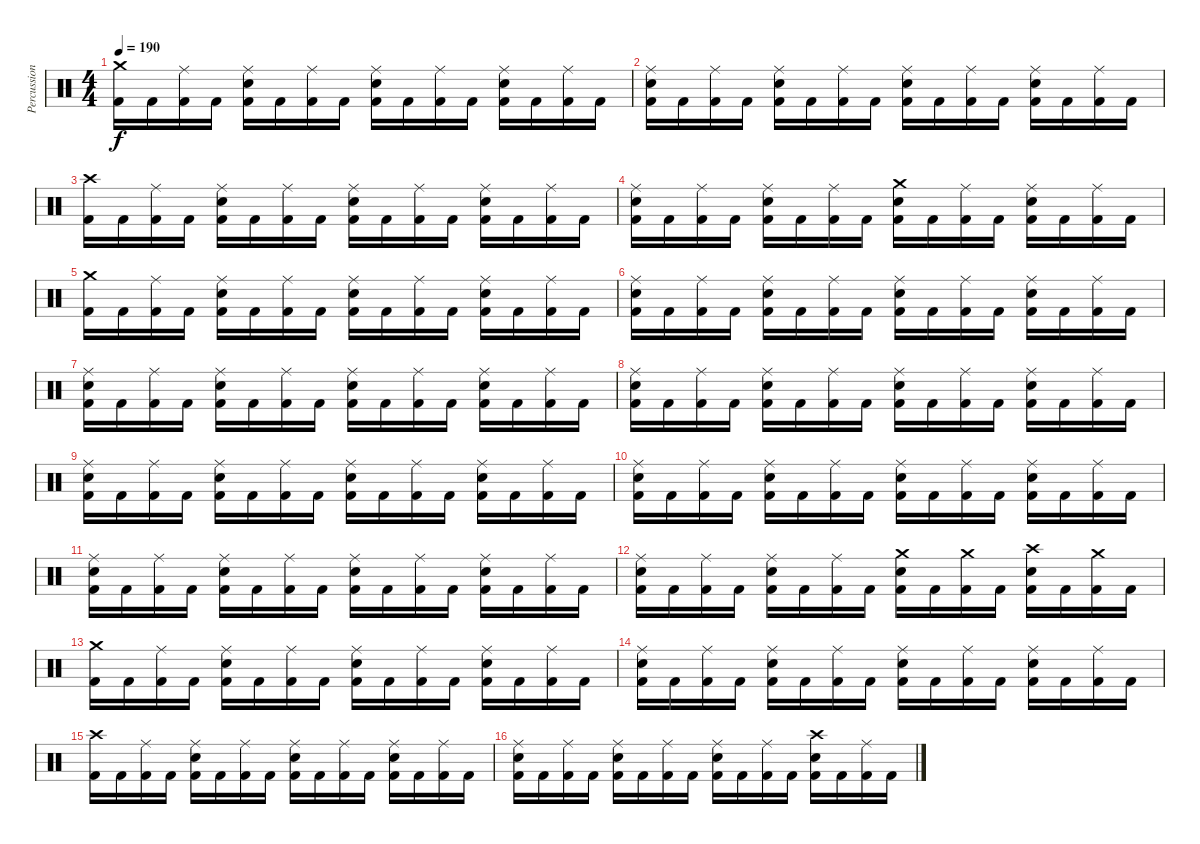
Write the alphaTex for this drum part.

\track ("Percussions" "Percussion") {instrument percussion}
\staff {score}
\articulation defaults
\ts (4 4)
\tempo 190
\clef neutral
\ks c
("Crash medium (hit)" "Kick (hit) 2").16{dy f} "Kick (hit) 2".16 ("Ride (middle)" "Kick (hit) 2").16 "Kick (hit) 2".16 ("Ride (middle)" "Electric Snare (hit)" "Kick (hit) 2").16 "Kick (hit) 2".16 ("Ride (middle)" "Kick (hit) 2").16 "Kick (hit) 2".16 ("Ride (middle)" "Electric Snare (hit)" "Kick (hit) 2").16 "Kick (hit) 2".16 ("Ride (middle)" "Kick (hit) 2").16 "Kick (hit) 2".16 ("Ride (middle)" "Electric Snare (hit)" "Kick (hit) 2").16 "Kick (hit) 2".16 ("Ride (middle)" "Kick (hit) 2").16 "Kick (hit) 2".16 |
("Ride (middle)" "Electric Snare (hit)" "Kick (hit) 2").16 "Kick (hit) 2".16 ("Ride (middle)" "Kick (hit) 2").16 "Kick (hit) 2".16 ("Ride (middle)" "Electric Snare (hit)" "Kick (hit) 2").16 "Kick (hit) 2".16 ("Ride (middle)" "Kick (hit) 2").16 "Kick (hit) 2".16 ("Ride (middle)" "Electric Snare (hit)" "Kick (hit) 2").16 "Kick (hit) 2".16 ("Ride (middle)" "Kick (hit) 2").16 "Kick (hit) 2".16 ("Ride (middle)" "Electric Snare (hit)" "Kick (hit) 2").16 "Kick (hit) 2".16 ("Ride (middle)" "Kick (hit) 2").16 "Kick (hit) 2".16 |
("Crash high (hit)" "Kick (hit) 2").16 "Kick (hit) 2".16 ("Ride (middle)" "Kick (hit) 2").16 "Kick (hit) 2".16 ("Ride (middle)" "Electric Snare (hit)" "Kick (hit) 2").16 "Kick (hit) 2".16 ("Ride (middle)" "Kick (hit) 2").16 "Kick (hit) 2".16 ("Ride (middle)" "Electric Snare (hit)" "Kick (hit) 2").16 "Kick (hit) 2".16 ("Ride (middle)" "Kick (hit) 2").16 "Kick (hit) 2".16 ("Ride (middle)" "Electric Snare (hit)" "Kick (hit) 2").16 "Kick (hit) 2".16 ("Ride (middle)" "Kick (hit) 2").16 "Kick (hit) 2".16 |
("Ride (middle)" "Electric Snare (hit)" "Kick (hit) 2").16 "Kick (hit) 2".16 ("Ride (middle)" "Kick (hit) 2").16 "Kick (hit) 2".16 ("Ride (middle)" "Electric Snare (hit)" "Kick (hit) 2").16 "Kick (hit) 2".16 ("Ride (middle)" "Kick (hit) 2").16 "Kick (hit) 2".16 ("Crash medium (hit)" "Electric Snare (hit)" "Kick (hit) 2").16 "Kick (hit) 2".16 ("Ride (middle)" "Kick (hit) 2").16 "Kick (hit) 2".16 ("Ride (middle)" "Electric Snare (hit)" "Kick (hit) 2").16 "Kick (hit) 2".16 ("Ride (middle)" "Kick (hit) 2").16 "Kick (hit) 2".16 |
("Crash medium (hit)" "Kick (hit) 2").16 "Kick (hit) 2".16 ("Ride (middle)" "Kick (hit) 2").16 "Kick (hit) 2".16 ("Ride (middle)" "Electric Snare (hit)" "Kick (hit) 2").16 "Kick (hit) 2".16 ("Ride (middle)" "Kick (hit) 2").16 "Kick (hit) 2".16 ("Ride (middle)" "Electric Snare (hit)" "Kick (hit) 2").16 "Kick (hit) 2".16 ("Ride (middle)" "Kick (hit) 2").16 "Kick (hit) 2".16 ("Ride (middle)" "Electric Snare (hit)" "Kick (hit) 2").16 "Kick (hit) 2".16 ("Ride (middle)" "Kick (hit) 2").16 "Kick (hit) 2".16 |
("Ride (middle)" "Electric Snare (hit)" "Kick (hit) 2").16 "Kick (hit) 2".16 ("Ride (middle)" "Kick (hit) 2").16 "Kick (hit) 2".16 ("Ride (middle)" "Electric Snare (hit)" "Kick (hit) 2").16 "Kick (hit) 2".16 ("Ride (middle)" "Kick (hit) 2").16 "Kick (hit) 2".16 ("Ride (middle)" "Electric Snare (hit)" "Kick (hit) 2").16 "Kick (hit) 2".16 ("Ride (middle)" "Kick (hit) 2").16 "Kick (hit) 2".16 ("Ride (middle)" "Electric Snare (hit)" "Kick (hit) 2").16 "Kick (hit) 2".16 ("Ride (middle)" "Kick (hit) 2").16 "Kick (hit) 2".16 |
("Ride (middle)" "Electric Snare (hit)" "Kick (hit) 2").16 "Kick (hit) 2".16 ("Ride (middle)" "Kick (hit) 2").16 "Kick (hit) 2".16 ("Ride (middle)" "Electric Snare (hit)" "Kick (hit) 2").16 "Kick (hit) 2".16 ("Ride (middle)" "Kick (hit) 2").16 "Kick (hit) 2".16 ("Ride (middle)" "Electric Snare (hit)" "Kick (hit) 2").16 "Kick (hit) 2".16 ("Ride (middle)" "Kick (hit) 2").16 "Kick (hit) 2".16 ("Ride (middle)" "Electric Snare (hit)" "Kick (hit) 2").16 "Kick (hit) 2".16 ("Ride (middle)" "Kick (hit) 2").16 "Kick (hit) 2".16 |
("Ride (middle)" "Electric Snare (hit)" "Kick (hit) 2").16 "Kick (hit) 2".16 ("Ride (middle)" "Kick (hit) 2").16 "Kick (hit) 2".16 ("Ride (middle)" "Electric Snare (hit)" "Kick (hit) 2").16 "Kick (hit) 2".16 ("Ride (middle)" "Kick (hit) 2").16 "Kick (hit) 2".16 ("Ride (middle)" "Electric Snare (hit)" "Kick (hit) 2").16 "Kick (hit) 2".16 ("Ride (middle)" "Kick (hit) 2").16 "Kick (hit) 2".16 ("Ride (middle)" "Electric Snare (hit)" "Kick (hit) 2").16 "Kick (hit) 2".16 ("Ride (middle)" "Kick (hit) 2").16 "Kick (hit) 2".16 |
("Ride (middle)" "Electric Snare (hit)" "Kick (hit) 2").16 "Kick (hit) 2".16 ("Ride (middle)" "Kick (hit) 2").16 "Kick (hit) 2".16 ("Ride (middle)" "Electric Snare (hit)" "Kick (hit) 2").16 "Kick (hit) 2".16 ("Ride (middle)" "Kick (hit) 2").16 "Kick (hit) 2".16 ("Ride (middle)" "Electric Snare (hit)" "Kick (hit) 2").16 "Kick (hit) 2".16 ("Ride (middle)" "Kick (hit) 2").16 "Kick (hit) 2".16 ("Ride (middle)" "Electric Snare (hit)" "Kick (hit) 2").16 "Kick (hit) 2".16 ("Ride (middle)" "Kick (hit) 2").16 "Kick (hit) 2".16 |
("Ride (middle)" "Electric Snare (hit)" "Kick (hit) 2").16 "Kick (hit) 2".16 ("Ride (middle)" "Kick (hit) 2").16 "Kick (hit) 2".16 ("Ride (middle)" "Electric Snare (hit)" "Kick (hit) 2").16 "Kick (hit) 2".16 ("Ride (middle)" "Kick (hit) 2").16 "Kick (hit) 2".16 ("Ride (middle)" "Electric Snare (hit)" "Kick (hit) 2").16 "Kick (hit) 2".16 ("Ride (middle)" "Kick (hit) 2").16 "Kick (hit) 2".16 ("Ride (middle)" "Electric Snare (hit)" "Kick (hit) 2").16 "Kick (hit) 2".16 ("Ride (middle)" "Kick (hit) 2").16 "Kick (hit) 2".16 |
("Ride (middle)" "Electric Snare (hit)" "Kick (hit) 2").16 "Kick (hit) 2".16 ("Ride (middle)" "Kick (hit) 2").16 "Kick (hit) 2".16 ("Ride (middle)" "Electric Snare (hit)" "Kick (hit) 2").16 "Kick (hit) 2".16 ("Ride (middle)" "Kick (hit) 2").16 "Kick (hit) 2".16 ("Ride (middle)" "Electric Snare (hit)" "Kick (hit) 2").16 "Kick (hit) 2".16 ("Ride (middle)" "Kick (hit) 2").16 "Kick (hit) 2".16 ("Ride (middle)" "Electric Snare (hit)" "Kick (hit) 2").16 "Kick (hit) 2".16 ("Ride (middle)" "Kick (hit) 2").16 "Kick (hit) 2".16 |
("Ride (middle)" "Electric Snare (hit)" "Kick (hit) 2").16 "Kick (hit) 2".16 ("Ride (middle)" "Kick (hit) 2").16 "Kick (hit) 2".16 ("Ride (middle)" "Electric Snare (hit)" "Kick (hit) 2").16 "Kick (hit) 2".16 ("Ride (middle)" "Kick (hit) 2").16 "Kick (hit) 2".16 ("Crash medium (hit)" "Electric Snare (hit)" "Kick (hit) 2").16 "Kick (hit) 2".16 ("Crash medium (hit)" "Kick (hit) 2").16 "Kick (hit) 2".16 ("Crash high (hit)" "Electric Snare (hit)" "Kick (hit) 2").16 "Kick (hit) 2".16 ("Crash medium (hit)" "Kick (hit) 2").16 "Kick (hit) 2".16 |
("Crash medium (hit)" "Kick (hit) 2").16 "Kick (hit) 2".16 ("Ride (middle)" "Kick (hit) 2").16 "Kick (hit) 2".16 ("Ride (middle)" "Electric Snare (hit)" "Kick (hit) 2").16 "Kick (hit) 2".16 ("Ride (middle)" "Kick (hit) 2").16 "Kick (hit) 2".16 ("Ride (middle)" "Electric Snare (hit)" "Kick (hit) 2").16 "Kick (hit) 2".16 ("Ride (middle)" "Kick (hit) 2").16 "Kick (hit) 2".16 ("Ride (middle)" "Electric Snare (hit)" "Kick (hit) 2").16 "Kick (hit) 2".16 ("Ride (middle)" "Kick (hit) 2").16 "Kick (hit) 2".16 |
("Ride (middle)" "Electric Snare (hit)" "Kick (hit) 2").16 "Kick (hit) 2".16 ("Ride (middle)" "Kick (hit) 2").16 "Kick (hit) 2".16 ("Ride (middle)" "Electric Snare (hit)" "Kick (hit) 2").16 "Kick (hit) 2".16 ("Ride (middle)" "Kick (hit) 2").16 "Kick (hit) 2".16 ("Ride (middle)" "Electric Snare (hit)" "Kick (hit) 2").16 "Kick (hit) 2".16 ("Ride (middle)" "Kick (hit) 2").16 "Kick (hit) 2".16 ("Ride (middle)" "Electric Snare (hit)" "Kick (hit) 2").16 "Kick (hit) 2".16 ("Ride (middle)" "Kick (hit) 2").16 "Kick (hit) 2".16 |
("Crash high (hit)" "Kick (hit) 2").16 "Kick (hit) 2".16 ("Ride (middle)" "Kick (hit) 2").16 "Kick (hit) 2".16 ("Ride (middle)" "Electric Snare (hit)" "Kick (hit) 2").16 "Kick (hit) 2".16 ("Ride (middle)" "Kick (hit) 2").16 "Kick (hit) 2".16 ("Ride (middle)" "Electric Snare (hit)" "Kick (hit) 2").16 "Kick (hit) 2".16 ("Ride (middle)" "Kick (hit) 2").16 "Kick (hit) 2".16 ("Ride (middle)" "Electric Snare (hit)" "Kick (hit) 2").16 "Kick (hit) 2".16 ("Ride (middle)" "Kick (hit) 2").16 "Kick (hit) 2".16 |
("Ride (middle)" "Electric Snare (hit)" "Kick (hit) 2").16 "Kick (hit) 2".16 ("Ride (middle)" "Kick (hit) 2").16 "Kick (hit) 2".16 ("Ride (middle)" "Electric Snare (hit)" "Kick (hit) 2").16 "Kick (hit) 2".16 ("Ride (middle)" "Kick (hit) 2").16 "Kick (hit) 2".16 ("Ride (middle)" "Electric Snare (hit)" "Kick (hit) 2").16 "Kick (hit) 2".16 ("Ride (middle)" "Kick (hit) 2").16 "Kick (hit) 2".16 ("Crash high (hit)" "Electric Snare (hit)" "Kick (hit) 2").16 "Kick (hit) 2".16 ("Ride (middle)" "Kick (hit) 2").16 "Kick (hit) 2".16
